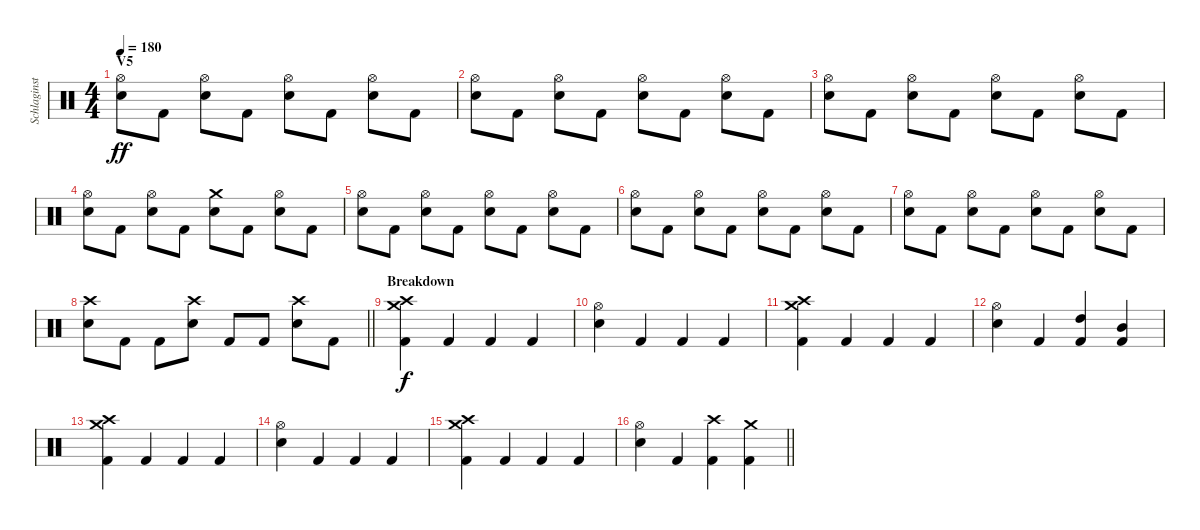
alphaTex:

\track ("Schlaginstrumente - Auswahl" "Schlaginst") {instrument percussion}
\staff {score}
\articulation defaults
\ts (4 4)
\section ("" "V5")
\tempo 180
\clef neutral
\ks c
("Hi-Hat (open)" "Electric Snare (hit)").8{dy ff} "Kick (hit) 2".8 ("Hi-Hat (open)" "Electric Snare (hit)").8 "Kick (hit) 2".8 ("Hi-Hat (open)" "Electric Snare (hit)").8 "Kick (hit) 2".8 ("Hi-Hat (open)" "Electric Snare (hit)").8 "Kick (hit) 2".8 |
("Hi-Hat (open)" "Electric Snare (hit)").8 "Kick (hit) 2".8 ("Hi-Hat (open)" "Electric Snare (hit)").8 "Kick (hit) 2".8 ("Hi-Hat (open)" "Electric Snare (hit)").8 "Kick (hit) 2".8 ("Hi-Hat (open)" "Electric Snare (hit)").8 "Kick (hit) 2".8 |
("Hi-Hat (open)" "Electric Snare (hit)").8 "Kick (hit) 2".8 ("Hi-Hat (open)" "Electric Snare (hit)").8 "Kick (hit) 2".8 ("Hi-Hat (open)" "Electric Snare (hit)").8 "Kick (hit) 2".8 ("Hi-Hat (open)" "Electric Snare (hit)").8 "Kick (hit) 2".8 |
("Hi-Hat (open)" "Electric Snare (hit)").8 "Kick (hit) 2".8 ("Hi-Hat (open)" "Electric Snare (hit)").8 "Kick (hit) 2".8 ("Crash medium (hit)" "Electric Snare (hit)").8 "Kick (hit) 2".8 ("Hi-Hat (open)" "Electric Snare (hit)").8 "Kick (hit) 2".8 |
("Hi-Hat (open)" "Electric Snare (hit)").8 "Kick (hit) 2".8 ("Hi-Hat (open)" "Electric Snare (hit)").8 "Kick (hit) 2".8 ("Hi-Hat (open)" "Electric Snare (hit)").8 "Kick (hit) 2".8 ("Hi-Hat (open)" "Electric Snare (hit)").8 "Kick (hit) 2".8 |
("Hi-Hat (open)" "Electric Snare (hit)").8 "Kick (hit) 2".8 ("Hi-Hat (open)" "Electric Snare (hit)").8 "Kick (hit) 2".8 ("Hi-Hat (open)" "Electric Snare (hit)").8 "Kick (hit) 2".8 ("Hi-Hat (open)" "Electric Snare (hit)").8 "Kick (hit) 2".8 |
("Hi-Hat (open)" "Electric Snare (hit)").8 "Kick (hit) 2".8 ("Hi-Hat (open)" "Electric Snare (hit)").8 "Kick (hit) 2".8 ("Hi-Hat (open)" "Electric Snare (hit)").8 "Kick (hit) 2".8 ("Hi-Hat (open)" "Electric Snare (hit)").8 "Kick (hit) 2".8 |
\barLineRight lightlight
("Crash high (hit)" "Electric Snare (hit)").8 "Kick (hit) 2".8 "Kick (hit) 2".8 ("Crash high (hit)" "Electric Snare (hit)").8 "Kick (hit) 2".8 "Kick (hit) 2".8 ("Crash high (hit)" "Electric Snare (hit)").8 "Kick (hit) 2".8 |
\section ("" "Breakdown")
("Crash high (hit)" "Crash medium (hit)" "Kick (hit) 2").4{dy f} "Kick (hit) 2".4 "Kick (hit) 2".4 "Kick (hit) 2".4 |
("Hi-Hat (open)" "Electric Snare (hit)").4 "Kick (hit) 2".4 "Kick (hit) 2".4 "Kick (hit) 2".4 |
("Crash high (hit)" "Crash medium (hit)" "Kick (hit) 2").4 "Kick (hit) 2".4 "Kick (hit) 2".4 "Kick (hit) 2".4 |
("Hi-Hat (open)" "Electric Snare (hit)").4 "Kick (hit) 2".4 ("Kick (hit) 2" "High Tom (hit)").4 ("Kick (hit) 2" "Mid Tom (hit)").4 |
("Crash high (hit)" "Crash medium (hit)" "Kick (hit) 2").4 "Kick (hit) 2".4 "Kick (hit) 2".4 "Kick (hit) 2".4 |
("Hi-Hat (open)" "Electric Snare (hit)").4 "Kick (hit) 2".4 "Kick (hit) 2".4 "Kick (hit) 2".4 |
("Crash high (hit)" "Crash medium (hit)" "Kick (hit) 2").4 "Kick (hit) 2".4 "Kick (hit) 2".4 "Kick (hit) 2".4 |
\barLineRight lightlight
("Hi-Hat (open)" "Electric Snare (hit)").4 "Kick (hit) 2".4 ("Kick (hit) 2" "Crash high (hit)").4 ("Kick (hit) 2" "Crash medium (hit)").4
